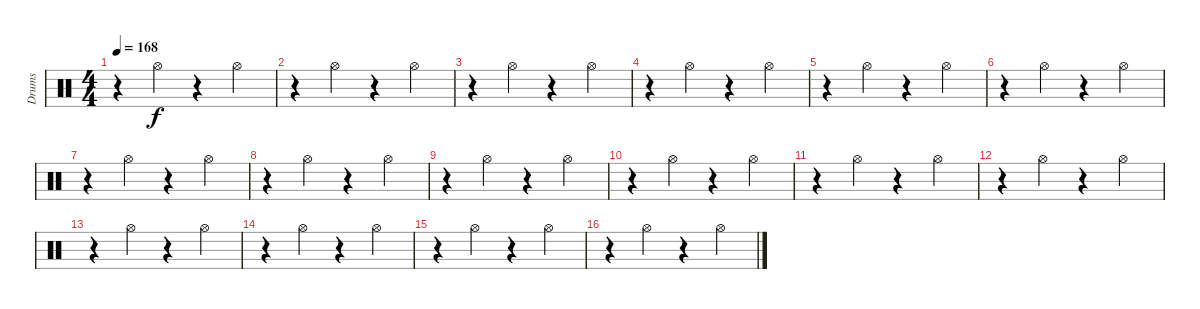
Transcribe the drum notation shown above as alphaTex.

\track ("Drums" "Drums") {instrument percussion}
\staff {score}
\articulation defaults
\ts (4 4)
\tempo 168
\clef neutral
\ks c
r.4{dy f} "Hi-Hat (open)".4 r.4 "Hi-Hat (open)".4 |
r.4 "Hi-Hat (open)".4 r.4 "Hi-Hat (open)".4 |
r.4 "Hi-Hat (open)".4 r.4 "Hi-Hat (open)".4 |
r.4 "Hi-Hat (open)".4 r.4 "Hi-Hat (open)".4 |
r.4 "Hi-Hat (open)".4 r.4 "Hi-Hat (open)".4 |
r.4 "Hi-Hat (open)".4 r.4 "Hi-Hat (open)".4 |
r.4 "Hi-Hat (open)".4 r.4 "Hi-Hat (open)".4 |
r.4 "Hi-Hat (open)".4 r.4 "Hi-Hat (open)".4 |
r.4 "Hi-Hat (open)".4 r.4 "Hi-Hat (open)".4 |
r.4 "Hi-Hat (open)".4 r.4 "Hi-Hat (open)".4 |
r.4 "Hi-Hat (open)".4 r.4 "Hi-Hat (open)".4 |
r.4 "Hi-Hat (open)".4 r.4 "Hi-Hat (open)".4 |
r.4 "Hi-Hat (open)".4 r.4 "Hi-Hat (open)".4 |
r.4 "Hi-Hat (open)".4 r.4 "Hi-Hat (open)".4 |
r.4 "Hi-Hat (open)".4 r.4 "Hi-Hat (open)".4 |
r.4 "Hi-Hat (open)".4 r.4 "Hi-Hat (open)".4
